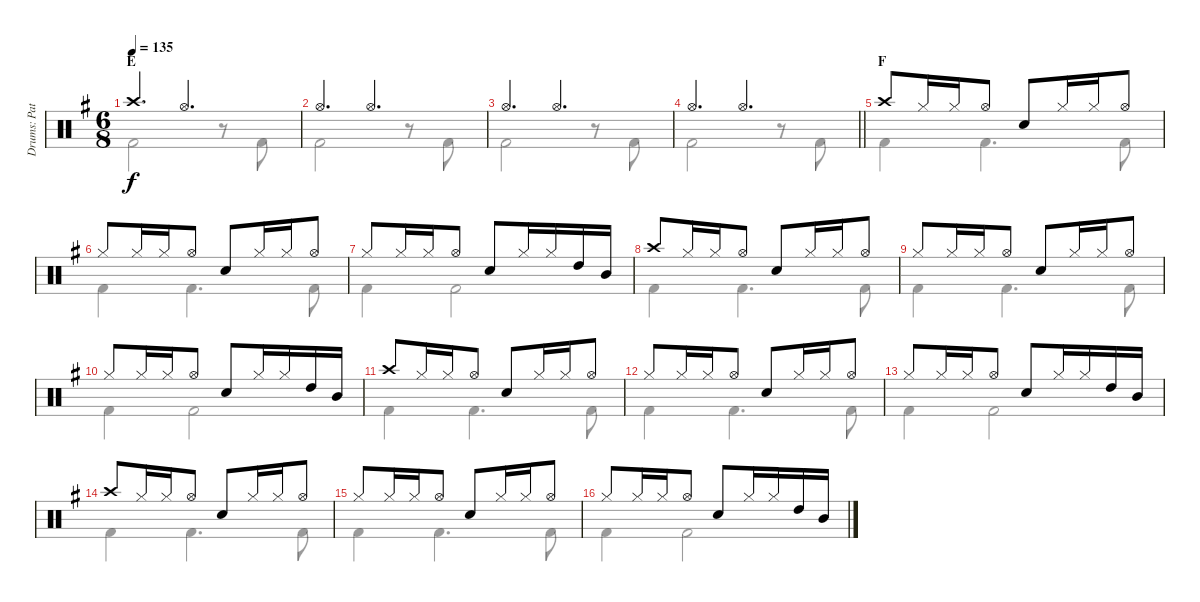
\track ("Drums: Pat" "Drums: Pat") {instrument percussion}
\staff {score}
\articulation defaults
\voice
\ts (6 8)
\section ("" "E")
\tempo 135
\clef neutral
\ks g "Crash high (hit)".4{d dy f} "Hi-Hat (open)"{acc b}.4{d}
|
"Hi-Hat (open)".4{d} "Hi-Hat (open)".4{d} |
"Hi-Hat (open)".4{d} "Hi-Hat (open)"{acc b}.4{d} |
\barLineRight lightlight "Hi-Hat (open)".4{d} "Hi-Hat (open)".4{d}
|
\section ("" "F")
"Crash high (hit)".8 "Hi-Hat (closed)".16 "Hi-Hat (closed)".16 "Hi-Hat (open)".8 "Snare (hit) 2".8 "Hi-Hat (closed)".16 "Hi-Hat (closed)".16 "Hi-Hat (open)".8 |
"Hi-Hat (closed)".8 "Hi-Hat (closed)".16 "Hi-Hat (closed)".16 "Hi-Hat (open)".8 "Snare (hit) 2".8 "Hi-Hat (closed)".16 "Hi-Hat (closed)".16 "Hi-Hat (open)".8 |
"Hi-Hat (closed)".8 "Hi-Hat (closed)".16 "Hi-Hat (closed)".16 "Hi-Hat (open)".8 "Snare (hit) 2".8 "Hi-Hat (closed)".16 "Hi-Hat (closed)".16 "High Tom (hit)".16 "Mid Tom (hit)".16 |
"Crash high (hit)".8 "Hi-Hat (closed)".16 "Hi-Hat (closed)".16 "Hi-Hat (open)".8 "Snare (hit) 2".8 "Hi-Hat (closed)".16 "Hi-Hat (closed)".16 "Hi-Hat (open)".8 |
"Hi-Hat (closed)".8 "Hi-Hat (closed)".16 "Hi-Hat (closed)".16 "Hi-Hat (open)".8 "Snare (hit) 2".8 "Hi-Hat (closed)".16 "Hi-Hat (closed)".16 "Hi-Hat (open)".8 |
"Hi-Hat (closed)".8 "Hi-Hat (closed)".16 "Hi-Hat (closed)".16 "Hi-Hat (open)".8 "Snare (hit) 2".8 "Hi-Hat (closed)".16 "Hi-Hat (closed)".16 "High Tom (hit)".16 "Mid Tom (hit)".16 |
"Crash high (hit)".8 "Hi-Hat (closed)".16 "Hi-Hat (closed)".16 "Hi-Hat (open)".8 "Snare (hit) 2".8 "Hi-Hat (closed)".16 "Hi-Hat (closed)".16 "Hi-Hat (open)".8 |
"Hi-Hat (closed)".8 "Hi-Hat (closed)".16 "Hi-Hat (closed)".16 "Hi-Hat (open)".8 "Snare (hit) 2".8 "Hi-Hat (closed)".16 "Hi-Hat (closed)".16 "Hi-Hat (open)".8 |
"Hi-Hat (closed)".8 "Hi-Hat (closed)".16 "Hi-Hat (closed)".16 "Hi-Hat (open)".8 "Snare (hit) 2".8 "Hi-Hat (closed)".16 "Hi-Hat (closed)".16 "High Tom (hit)".16 "Mid Tom (hit)".16 |
"Crash high (hit)".8 "Hi-Hat (closed)".16 "Hi-Hat (closed)".16 "Hi-Hat (open)".8 "Snare (hit) 2".8 "Hi-Hat (closed)".16 "Hi-Hat (closed)".16 "Hi-Hat (open)".8 |
"Hi-Hat (closed)".8 "Hi-Hat (closed)".16 "Hi-Hat (closed)".16 "Hi-Hat (open)".8 "Snare (hit) 2".8 "Hi-Hat (closed)".16 "Hi-Hat (closed)".16 "Hi-Hat (open)".8 |
"Hi-Hat (closed)".8 "Hi-Hat (closed)".16 "Hi-Hat (closed)".16 "Hi-Hat (open)".8 "Snare (hit) 2".8 "Hi-Hat (closed)".16 "Hi-Hat (closed)".16 "High Tom (hit)".16 "Mid Tom (hit)".16
\voice
\clef neutral
\ottava regular
\simile none
\ks g "Kick (hit) 2".2{dy f}
r.8 "Kick (hit) 2".8 |
"Kick (hit) 2".2 r.8 "Kick (hit) 2".8 |
"Kick (hit) 2".2 r.8 "Kick (hit) 2".8 |
\barLineRight lightlight "Kick (hit) 2".2
r.8 "Kick (hit) 2".8 |
"Kick (hit) 2".4 "Kick (hit) 2".4{d} "Kick (hit) 2".8 |
"Kick (hit) 2".4 "Kick (hit) 2".4{d} "Kick (hit) 2".8 |
"Kick (hit) 2".4 "Kick (hit) 2".2 |
"Kick (hit) 2".4 "Kick (hit) 2".4{d} "Kick (hit) 2".8 |
"Kick (hit) 2".4 "Kick (hit) 2".4{d} "Kick (hit) 2".8 |
"Kick (hit) 2".4 "Kick (hit) 2".2 |
"Kick (hit) 2".4 "Kick (hit) 2".4{d} "Kick (hit) 2".8 |
"Kick (hit) 2".4 "Kick (hit) 2".4{d} "Kick (hit) 2".8 |
"Kick (hit) 2".4 "Kick (hit) 2".2 |
"Kick (hit) 2".4 "Kick (hit) 2".4{d} "Kick (hit) 2".8 |
"Kick (hit) 2".4 "Kick (hit) 2".4{d} "Kick (hit) 2".8 |
"Kick (hit) 2".4 "Kick (hit) 2".2
